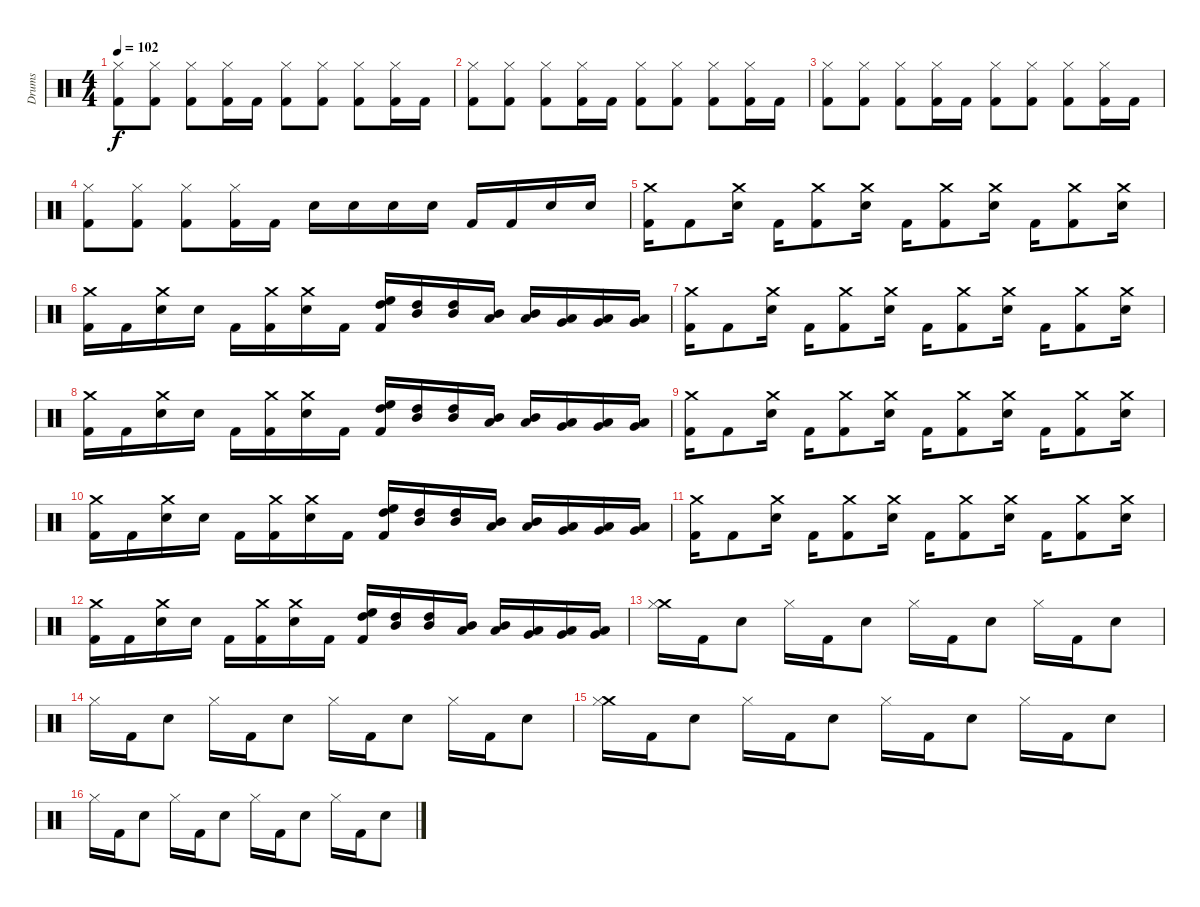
\track ("Drums" "Drums") {instrument percussion}
\staff {score}
\articulation defaults
\ts (4 4)
\tempo 102
\clef neutral
\ks c
("Hi-Hat (closed)" "Kick (hit) 2").8{dy f} ("Hi-Hat (closed)" "Kick (hit) 2").8 ("Hi-Hat (closed)" "Kick (hit) 2").8 ("Hi-Hat (closed)" "Kick (hit) 2").16 "Kick (hit) 2".16 ("Hi-Hat (closed)" "Kick (hit) 2").8 ("Hi-Hat (closed)" "Kick (hit) 2").8 ("Hi-Hat (closed)" "Kick (hit) 2").8 ("Hi-Hat (closed)" "Kick (hit) 2").16 "Kick (hit) 2".16 |
("Hi-Hat (closed)" "Kick (hit) 2").8 ("Hi-Hat (closed)" "Kick (hit) 2").8 ("Hi-Hat (closed)" "Kick (hit) 2").8 ("Hi-Hat (closed)" "Kick (hit) 2").16 "Kick (hit) 2".16 ("Hi-Hat (closed)" "Kick (hit) 2").8 ("Hi-Hat (closed)" "Kick (hit) 2").8 ("Hi-Hat (closed)" "Kick (hit) 2").8 ("Hi-Hat (closed)" "Kick (hit) 2").16 "Kick (hit) 2".16 |
("Hi-Hat (closed)" "Kick (hit) 2").8 ("Hi-Hat (closed)" "Kick (hit) 2").8 ("Hi-Hat (closed)" "Kick (hit) 2").8 ("Hi-Hat (closed)" "Kick (hit) 2").16 "Kick (hit) 2".16 ("Hi-Hat (closed)" "Kick (hit) 2").8 ("Hi-Hat (closed)" "Kick (hit) 2").8 ("Hi-Hat (closed)" "Kick (hit) 2").8 ("Hi-Hat (closed)" "Kick (hit) 2").16 "Kick (hit) 2".16 |
("Hi-Hat (closed)" "Kick (hit) 2").8 ("Hi-Hat (closed)" "Kick (hit) 2").8 ("Hi-Hat (closed)" "Kick (hit) 2").8 ("Hi-Hat (closed)" "Kick (hit) 2").16 "Kick (hit) 2".16 "Electric Snare (hit)".16 "Electric Snare (hit)".16 "Electric Snare (hit)".16 "Electric Snare (hit)".16 "Kick (hit) 2".16 "Kick (hit) 2".16 "Electric Snare (hit)".16 "Electric Snare (hit)".16 |
("Crash medium (hit)" "Kick (hit) 2").16 "Kick (hit) 2".8 ("Crash medium (hit)" "Electric Snare (hit)").16 "Kick (hit) 2".16 ("Crash medium (hit)" "Kick (hit) 2").8 ("Crash medium (hit)" "Electric Snare (hit)").16 "Kick (hit) 2".16 ("Crash medium (hit)" "Kick (hit) 2").8 ("Crash medium (hit)" "Electric Snare (hit)").16 "Kick (hit) 2".16 ("Crash medium (hit)" "Kick (hit) 2").8 ("Crash medium (hit)" "Electric Snare (hit)").16 |
("Crash medium (hit)" "Kick (hit) 2").16 "Kick (hit) 2".16 ("Crash medium (hit)" "Electric Snare (hit)").16 "Electric Snare (hit)".16 "Kick (hit) 2".16 ("Crash medium (hit)" "Kick (hit) 2").16 ("Crash medium (hit)" "Electric Snare (hit)").16 "Kick (hit) 2".16 ("High Floor Tom (hit)" "High Tom (hit)" "Kick (hit) 2").16 ("Mid Tom (hit)" "High Tom (hit)").16 ("High Tom (hit)" "Mid Tom (hit)").16 ("Low Tom (hit)" "Mid Tom (hit)").16 ("Mid Tom (hit)" "Low Tom (hit)").16 ("Very Low Tom (hit)" "Low Tom (hit)").16 ("Low Tom (hit)" "Very Low Tom (hit)").16 ("Low Floor Tom (hit)" "Very Low Tom (hit)").16 |
("Crash medium (hit)" "Kick (hit) 2").16 "Kick (hit) 2".8 ("Crash medium (hit)" "Electric Snare (hit)").16 "Kick (hit) 2".16 ("Crash medium (hit)" "Kick (hit) 2").8 ("Crash medium (hit)" "Electric Snare (hit)").16 "Kick (hit) 2".16 ("Crash medium (hit)" "Kick (hit) 2").8 ("Crash medium (hit)" "Electric Snare (hit)").16 "Kick (hit) 2".16 ("Crash medium (hit)" "Kick (hit) 2").8 ("Crash medium (hit)" "Electric Snare (hit)").16 |
("Crash medium (hit)" "Kick (hit) 2").16 "Kick (hit) 2".16 ("Crash medium (hit)" "Electric Snare (hit)").16 "Electric Snare (hit)".16 "Kick (hit) 2".16 ("Crash medium (hit)" "Kick (hit) 2").16 ("Crash medium (hit)" "Electric Snare (hit)").16 "Kick (hit) 2".16 ("High Floor Tom (hit)" "High Tom (hit)" "Kick (hit) 2").16 ("Mid Tom (hit)" "High Tom (hit)").16 ("High Tom (hit)" "Mid Tom (hit)").16 ("Low Tom (hit)" "Mid Tom (hit)").16 ("Mid Tom (hit)" "Low Tom (hit)").16 ("Very Low Tom (hit)" "Low Tom (hit)").16 ("Low Tom (hit)" "Very Low Tom (hit)").16 ("Low Floor Tom (hit)" "Very Low Tom (hit)").16 |
("Crash medium (hit)" "Kick (hit) 2").16 "Kick (hit) 2".8 ("Crash medium (hit)" "Electric Snare (hit)").16 "Kick (hit) 2".16 ("Crash medium (hit)" "Kick (hit) 2").8 ("Crash medium (hit)" "Electric Snare (hit)").16 "Kick (hit) 2".16 ("Crash medium (hit)" "Kick (hit) 2").8 ("Crash medium (hit)" "Electric Snare (hit)").16 "Kick (hit) 2".16 ("Crash medium (hit)" "Kick (hit) 2").8 ("Crash medium (hit)" "Electric Snare (hit)").16 |
("Crash medium (hit)" "Kick (hit) 2").16 "Kick (hit) 2".16 ("Crash medium (hit)" "Electric Snare (hit)").16 "Electric Snare (hit)".16 "Kick (hit) 2".16 ("Crash medium (hit)" "Kick (hit) 2").16 ("Crash medium (hit)" "Electric Snare (hit)").16 "Kick (hit) 2".16 ("High Floor Tom (hit)" "High Tom (hit)" "Kick (hit) 2").16 ("Mid Tom (hit)" "High Tom (hit)").16 ("High Tom (hit)" "Mid Tom (hit)").16 ("Low Tom (hit)" "Mid Tom (hit)").16 ("Mid Tom (hit)" "Low Tom (hit)").16 ("Very Low Tom (hit)" "Low Tom (hit)").16 ("Low Tom (hit)" "Very Low Tom (hit)").16 ("Low Floor Tom (hit)" "Very Low Tom (hit)").16 |
("Crash medium (hit)" "Kick (hit) 2").16 "Kick (hit) 2".8 ("Crash medium (hit)" "Electric Snare (hit)").16 "Kick (hit) 2".16 ("Crash medium (hit)" "Kick (hit) 2").8 ("Crash medium (hit)" "Electric Snare (hit)").16 "Kick (hit) 2".16 ("Crash medium (hit)" "Kick (hit) 2").8 ("Crash medium (hit)" "Electric Snare (hit)").16 "Kick (hit) 2".16 ("Crash medium (hit)" "Kick (hit) 2").8 ("Crash medium (hit)" "Electric Snare (hit)").16 |
("Crash medium (hit)" "Kick (hit) 2").16 "Kick (hit) 2".16 ("Crash medium (hit)" "Electric Snare (hit)").16 "Electric Snare (hit)".16 "Kick (hit) 2".16 ("Crash medium (hit)" "Kick (hit) 2").16 ("Crash medium (hit)" "Electric Snare (hit)").16 "Kick (hit) 2".16 ("High Floor Tom (hit)" "High Tom (hit)" "Kick (hit) 2").16 ("Mid Tom (hit)" "High Tom (hit)").16 ("High Tom (hit)" "Mid Tom (hit)").16 ("Low Tom (hit)" "Mid Tom (hit)").16 ("Mid Tom (hit)" "Low Tom (hit)").16 ("Very Low Tom (hit)" "Low Tom (hit)").16 ("Low Tom (hit)" "Very Low Tom (hit)").16 ("Low Floor Tom (hit)" "Very Low Tom (hit)").16 |
("Crash medium (hit)" "Hi-Hat (closed)").16 "Kick (hit) 2".16 "Electric Snare (hit)".8 "Hi-Hat (closed)".16 "Kick (hit) 2".16 "Electric Snare (hit)".8 "Hi-Hat (closed)".16 "Kick (hit) 2".16 "Electric Snare (hit)".8 "Hi-Hat (closed)".16 "Kick (hit) 2".16 "Electric Snare (hit)".8 |
"Hi-Hat (closed)".16 "Kick (hit) 2".16 "Electric Snare (hit)".8 "Hi-Hat (closed)".16 "Kick (hit) 2".16 "Electric Snare (hit)".8 "Hi-Hat (closed)".16 "Kick (hit) 2".16 "Electric Snare (hit)".8 "Hi-Hat (closed)".16 "Kick (hit) 2".16 "Electric Snare (hit)".8 |
("Crash medium (hit)" "Hi-Hat (closed)").16 "Kick (hit) 2".16 "Electric Snare (hit)".8 "Hi-Hat (closed)".16 "Kick (hit) 2".16 "Electric Snare (hit)".8 "Hi-Hat (closed)".16 "Kick (hit) 2".16 "Electric Snare (hit)".8 "Hi-Hat (closed)".16 "Kick (hit) 2".16 "Electric Snare (hit)".8 |
"Hi-Hat (closed)".16 "Kick (hit) 2".16 "Electric Snare (hit)".8 "Hi-Hat (closed)".16 "Kick (hit) 2".16 "Electric Snare (hit)".8 "Hi-Hat (closed)".16 "Kick (hit) 2".16 "Electric Snare (hit)".8 "Hi-Hat (closed)".16 "Kick (hit) 2".16 "Electric Snare (hit)".8
